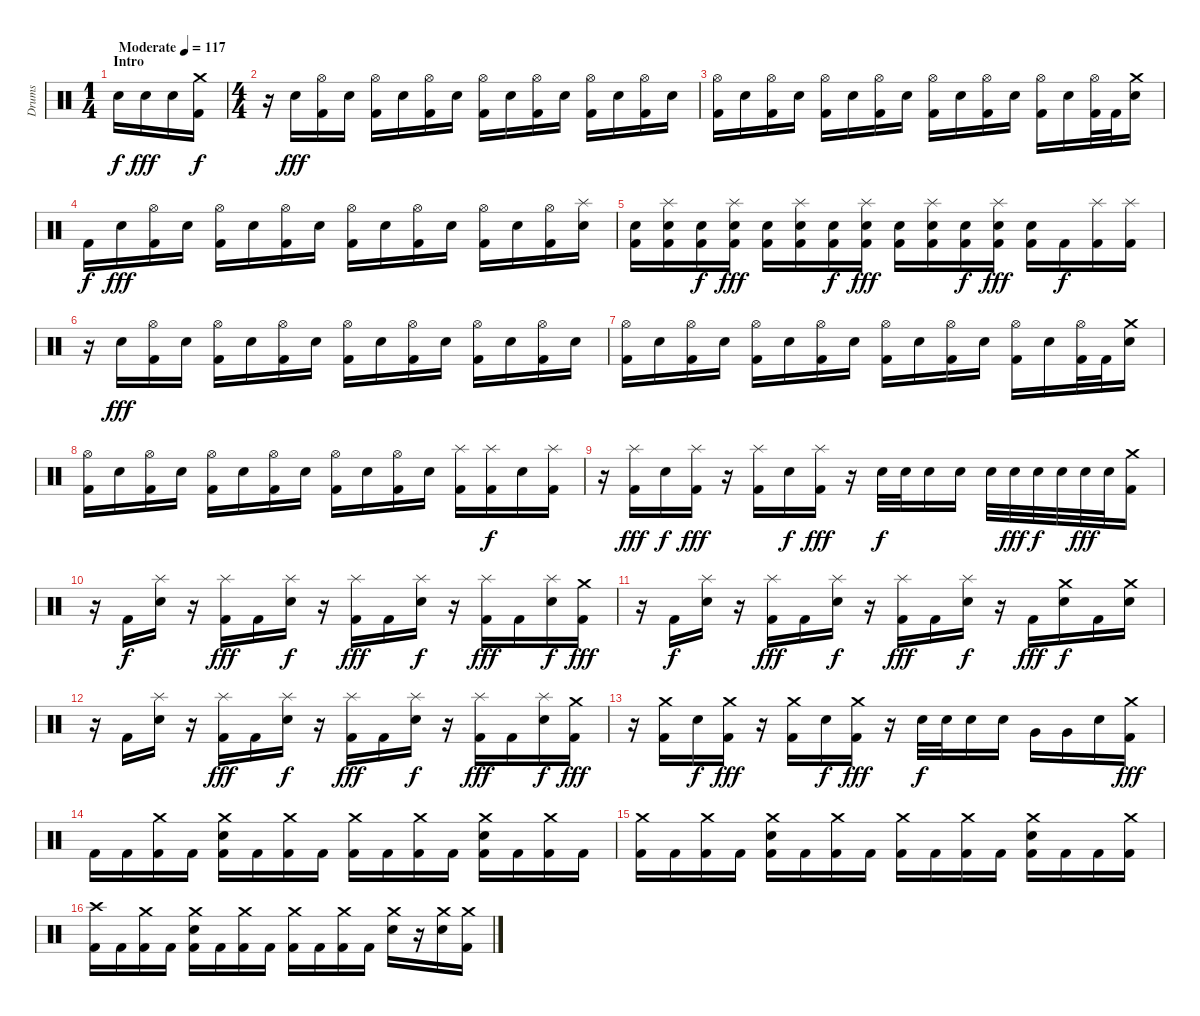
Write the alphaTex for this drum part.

\track ("Drums" "Drums") {instrument percussion}
\staff {score}
\articulation defaults
\ts (1 4)
\section ("" "Intro")
\tempo (117 "Moderate")
\clef neutral
\ks c "Electric Snare (hit)".16{dy f} "Electric Snare (hit)".16{dy fff} "Electric Snare (hit)".16
("Crash medium (hit)" "Kick (hit) 2").16{dy f} |
\ts (4 4)
r.16 "Electric Snare (hit)".16{dy fff} ("Hi-Hat (open)" "Kick (hit) 2").16 "Electric Snare (hit)".16 ("Hi-Hat (open)" "Kick (hit) 2").16 "Electric Snare (hit)".16 ("Hi-Hat (open)" "Kick (hit) 2").16 "Electric Snare (hit)".16 ("Hi-Hat (open)" "Kick (hit) 2").16 "Electric Snare (hit)".16 ("Hi-Hat (open)" "Kick (hit) 2").16 "Electric Snare (hit)".16 ("Hi-Hat (open)" "Kick (hit) 2").16 "Electric Snare (hit)".16 ("Hi-Hat (open)" "Kick (hit) 2").16 "Electric Snare (hit)".16 |
("Hi-Hat (open)" "Kick (hit) 2").16 "Electric Snare (hit)".16 ("Hi-Hat (open)" "Kick (hit) 2").16 "Electric Snare (hit)".16 ("Hi-Hat (open)" "Kick (hit) 2").16 "Electric Snare (hit)".16 ("Hi-Hat (open)" "Kick (hit) 2").16 "Electric Snare (hit)".16 ("Hi-Hat (open)" "Kick (hit) 2").16 "Electric Snare (hit)".16 ("Hi-Hat (open)" "Kick (hit) 2").16 "Electric Snare (hit)".16 ("Hi-Hat (open)" "Kick (hit) 2").16 "Electric Snare (hit)".16 ("Hi-Hat (open)" "Kick (hit) 2").32 "Kick (hit) 2".32 ("Crash medium (hit)" "Electric Snare (hit)").16 |
"Kick (hit) 2".16{dy f} "Electric Snare (hit)".16{dy fff} ("Hi-Hat (open)" "Kick (hit) 2").16 "Electric Snare (hit)".16 ("Hi-Hat (open)" "Kick (hit) 2").16 "Electric Snare (hit)".16 ("Hi-Hat (open)" "Kick (hit) 2").16 "Electric Snare (hit)".16 ("Hi-Hat (open)" "Kick (hit) 2").16 "Electric Snare (hit)".16 ("Hi-Hat (open)" "Kick (hit) 2").16 "Electric Snare (hit)".16 ("Hi-Hat (open)" "Kick (hit) 2").16 "Electric Snare (hit)".16 ("Hi-Hat (open)" "Kick (hit) 2").16 ("Splash (hit)" "Electric Snare (hit)").16 |
("Electric Snare (hit)" "Kick (hit) 2").16 ("Splash (hit)" "Electric Snare (hit)" "Kick (hit) 2").16 ("Electric Snare (hit)" "Kick (hit) 2").16{dy f} ("Splash (hit)" "Electric Snare (hit)" "Kick (hit) 2").16{dy fff} ("Electric Snare (hit)" "Kick (hit) 2").16 ("Splash (hit)" "Electric Snare (hit)" "Kick (hit) 2").16 ("Electric Snare (hit)" "Kick (hit) 2").16{dy f} ("Splash (hit)" "Electric Snare (hit)" "Kick (hit) 2").16{dy fff} ("Electric Snare (hit)" "Kick (hit) 2").16 ("Splash (hit)" "Electric Snare (hit)" "Kick (hit) 2").16 ("Electric Snare (hit)" "Kick (hit) 2").16{dy f} ("Splash (hit)" "Electric Snare (hit)" "Kick (hit) 2").16{dy fff} ("Electric Snare (hit)" "Kick (hit) 2").16 "Kick (hit) 2".16{dy f} ("Splash (hit)" "Kick (hit) 2").16 ("Splash (hit)" "Kick (hit) 2").16 |
r.16 "Electric Snare (hit)".16{dy fff} ("Hi-Hat (open)" "Kick (hit) 2").16 "Electric Snare (hit)".16 ("Hi-Hat (open)" "Kick (hit) 2").16 "Electric Snare (hit)".16 ("Hi-Hat (open)" "Kick (hit) 2").16 "Electric Snare (hit)".16 ("Hi-Hat (open)" "Kick (hit) 2").16 "Electric Snare (hit)".16 ("Hi-Hat (open)" "Kick (hit) 2").16 "Electric Snare (hit)".16 ("Hi-Hat (open)" "Kick (hit) 2").16 "Electric Snare (hit)".16 ("Hi-Hat (open)" "Kick (hit) 2").16 "Electric Snare (hit)".16 |
("Hi-Hat (open)" "Kick (hit) 2").16 "Electric Snare (hit)".16 ("Hi-Hat (open)" "Kick (hit) 2").16 "Electric Snare (hit)".16 ("Hi-Hat (open)" "Kick (hit) 2").16 "Electric Snare (hit)".16 ("Hi-Hat (open)" "Kick (hit) 2").16 "Electric Snare (hit)".16 ("Hi-Hat (open)" "Kick (hit) 2").16 "Electric Snare (hit)".16 ("Hi-Hat (open)" "Kick (hit) 2").16 "Electric Snare (hit)".16 ("Hi-Hat (open)" "Kick (hit) 2").16 "Electric Snare (hit)".16 ("Hi-Hat (open)" "Kick (hit) 2").32 "Kick (hit) 2".32 ("Crash medium (hit)" "Electric Snare (hit)").16 |
("Hi-Hat (open)" "Kick (hit) 2").16 "Electric Snare (hit)".16 ("Hi-Hat (open)" "Kick (hit) 2").16 "Electric Snare (hit)".16 ("Hi-Hat (open)" "Kick (hit) 2").16 "Electric Snare (hit)".16 ("Hi-Hat (open)" "Kick (hit) 2").16 "Electric Snare (hit)".16 ("Hi-Hat (open)" "Kick (hit) 2").16 "Electric Snare (hit)".16 ("Hi-Hat (open)" "Kick (hit) 2").16 "Electric Snare (hit)".16 ("Splash (hit)" "Kick (hit) 2").16 ("Splash (hit)" "Kick (hit) 2").16{dy f} "Electric Snare (hit)".16 ("Splash (hit)" "Kick (hit) 2").16 |
r.16 ("Splash (hit)" "Kick (hit) 2").16{dy fff} "Electric Snare (hit)".16{dy f} ("Splash (hit)" "Kick (hit) 2").16{dy fff} r.16 ("Splash (hit)" "Kick (hit) 2").16 "Electric Snare (hit)".16{dy f} ("Splash (hit)" "Kick (hit) 2").16{dy fff} r.16 "Electric Snare (hit)".32{dy f} "Electric Snare (hit)".32 "Electric Snare (hit)".16 "Electric Snare (hit)".16 "Electric Snare (hit)".32 "Electric Snare (hit)".32{dy fff} "Electric Snare (hit)".32{dy f} "Electric Snare (hit)".32 "Electric Snare (hit)".32{dy fff} "Electric Snare (hit)".32 ("Crash medium (hit)" "Kick (hit) 2").16 |
r.16 "Kick (hit) 2".16{dy f} ("Splash (hit)" "Electric Snare (hit)").16 r.16 ("Splash (hit)" "Kick (hit) 2").16{dy fff} "Kick (hit) 2".16 ("Splash (hit)" "Electric Snare (hit)").16{dy f} r.16 ("Splash (hit)" "Kick (hit) 2").16{dy fff} "Kick (hit) 2".16 ("Splash (hit)" "Electric Snare (hit)").16{dy f} r.16 ("Splash (hit)" "Kick (hit) 2").16{dy fff} "Kick (hit) 2".16 ("Splash (hit)" "Electric Snare (hit)").16{dy f} ("Crash medium (hit)" "Kick (hit) 2").16{dy fff} |
r.16 "Kick (hit) 2".16{dy f} ("Splash (hit)" "Electric Snare (hit)").16 r.16 ("Splash (hit)" "Kick (hit) 2").16{dy fff} "Kick (hit) 2".16 ("Splash (hit)" "Electric Snare (hit)").16{dy f} r.16 ("Splash (hit)" "Kick (hit) 2").16{dy fff} "Kick (hit) 2".16 ("Splash (hit)" "Electric Snare (hit)").16{dy f} r.16 "Kick (hit) 2".16{dy fff} ("Crash medium (hit)" "Electric Snare (hit)").16{dy f} "Kick (hit) 2".16 ("Crash medium (hit)" "Electric Snare (hit)").16 |
r.16 "Kick (hit) 2".16 ("Splash (hit)" "Electric Snare (hit)").16 r.16 ("Splash (hit)" "Kick (hit) 2").16{dy fff} "Kick (hit) 2".16 ("Splash (hit)" "Electric Snare (hit)").16{dy f} r.16 ("Splash (hit)" "Kick (hit) 2").16{dy fff} "Kick (hit) 2".16 ("Splash (hit)" "Electric Snare (hit)").16{dy f} r.16 ("Splash (hit)" "Kick (hit) 2").16{dy fff} "Kick (hit) 2".16 ("Splash (hit)" "Electric Snare (hit)").16{dy f} ("Crash medium (hit)" "Kick (hit) 2").16{dy fff} |
r.16 ("Crash medium (hit)" "Kick (hit) 2").16 "Electric Snare (hit)".16{dy f} ("Crash medium (hit)" "Kick (hit) 2").16{dy fff} r.16 ("Crash medium (hit)" "Kick (hit) 2").16 "Electric Snare (hit)".16{dy f} ("Crash medium (hit)" "Kick (hit) 2").16{dy fff} r.16 "Electric Snare (hit)".32{dy f} "Electric Snare (hit)".32 "Electric Snare (hit)".16 "Electric Snare (hit)".16 "Very Low Tom (hit)".16 "Very Low Tom (hit)".16 "Electric Snare (hit)".16 ("Crash medium (hit)" "Kick (hit) 2").16{dy fff} |
"Kick (hit) 2".16 "Kick (hit) 2".16 ("Crash medium (hit)" "Kick (hit) 2").16 "Kick (hit) 2".16 ("Crash medium (hit)" "Electric Snare (hit)" "Kick (hit) 2").16 "Kick (hit) 2".16 ("Crash medium (hit)" "Kick (hit) 2").16 "Kick (hit) 2".16 ("Crash medium (hit)" "Kick (hit) 2").16 "Kick (hit) 2".16 ("Crash medium (hit)" "Kick (hit) 2").16 "Kick (hit) 2".16 ("Crash medium (hit)" "Electric Snare (hit)" "Kick (hit) 2").16 "Kick (hit) 2".16 ("Crash medium (hit)" "Kick (hit) 2").16 "Kick (hit) 2".16 |
("Crash medium (hit)" "Kick (hit) 2").16 "Kick (hit) 2".16 ("Crash medium (hit)" "Kick (hit) 2").16 "Kick (hit) 2".16 ("Crash medium (hit)" "Electric Snare (hit)" "Kick (hit) 2").16 "Kick (hit) 2".16 ("Crash medium (hit)" "Kick (hit) 2").16 "Kick (hit) 2".16 ("Crash medium (hit)" "Kick (hit) 2").16 "Kick (hit) 2".16 ("Crash medium (hit)" "Kick (hit) 2").16 "Kick (hit) 2".16 ("Crash medium (hit)" "Electric Snare (hit)" "Kick (hit) 2").16 "Kick (hit) 2".16 "Kick (hit) 2".16 ("Crash medium (hit)" "Kick (hit) 2").16 |
("Crash high (hit)" "Kick (hit) 2").16 "Kick (hit) 2".16 ("Crash medium (hit)" "Kick (hit) 2").16 "Kick (hit) 2".16 ("Crash medium (hit)" "Electric Snare (hit)" "Kick (hit) 2").16 "Kick (hit) 2".16 ("Crash medium (hit)" "Kick (hit) 2").16 "Kick (hit) 2".16 ("Crash medium (hit)" "Kick (hit) 2").16 "Kick (hit) 2".16 ("Crash medium (hit)" "Kick (hit) 2").16 "Kick (hit) 2".16 ("Crash medium (hit)" "Electric Snare (hit)").16 r.16 ("Crash medium (hit)" "Electric Snare (hit)").16 ("Crash medium (hit)" "Kick (hit) 2").16
